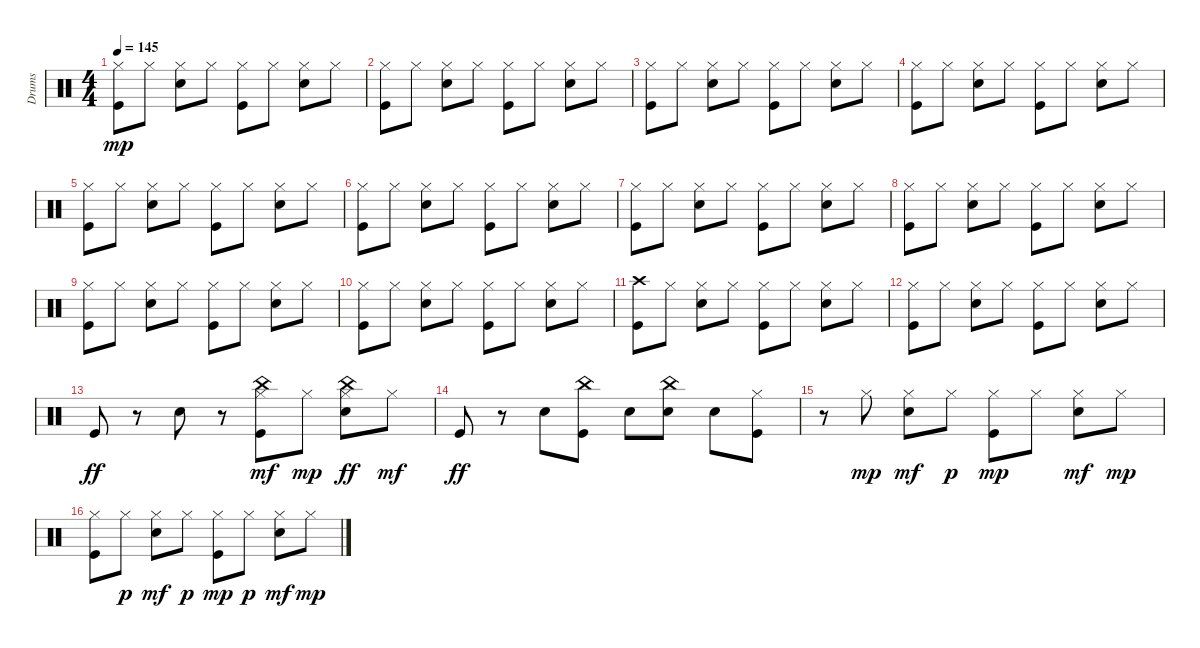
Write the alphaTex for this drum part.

\track ("Drums" "Drums") {instrument percussion}
\staff {score}
\articulation defaults
\ts (4 4)
\tempo 145
\clef neutral
\ks c
("Kick (hit)" "Hi-Hat (closed)").8{dy mp} "Hi-Hat (closed)".8 ("Snare (hit) 2" "Hi-Hat (closed)").8 "Hi-Hat (closed)".8 ("Kick (hit)" "Hi-Hat (closed)").8 "Hi-Hat (closed)".8 ("Snare (hit) 2" "Hi-Hat (closed)").8 "Hi-Hat (closed)".8 |
("Kick (hit)" "Hi-Hat (closed)").8 "Hi-Hat (closed)".8 ("Snare (hit) 2" "Hi-Hat (closed)").8 "Hi-Hat (closed)".8 ("Kick (hit)" "Hi-Hat (closed)").8 "Hi-Hat (closed)".8 ("Snare (hit) 2" "Hi-Hat (closed)").8 "Hi-Hat (closed)".8 |
("Kick (hit)" "Hi-Hat (closed)").8 "Hi-Hat (closed)".8 ("Snare (hit) 2" "Hi-Hat (closed)").8 "Hi-Hat (closed)".8 ("Kick (hit)" "Hi-Hat (closed)").8 "Hi-Hat (closed)".8 ("Snare (hit) 2" "Hi-Hat (closed)").8 "Hi-Hat (closed)".8 |
("Kick (hit)" "Hi-Hat (closed)").8 "Hi-Hat (closed)".8 ("Snare (hit) 2" "Hi-Hat (closed)").8 "Hi-Hat (closed)".8 ("Kick (hit)" "Hi-Hat (closed)").8 "Hi-Hat (closed)".8 ("Snare (hit) 2" "Hi-Hat (closed)").8 "Hi-Hat (closed)".8 |
("Kick (hit)" "Hi-Hat (closed)").8 "Hi-Hat (closed)".8 ("Snare (hit) 2" "Hi-Hat (closed)").8 "Hi-Hat (closed)".8 ("Kick (hit)" "Hi-Hat (closed)").8 "Hi-Hat (closed)".8 ("Snare (hit) 2" "Hi-Hat (closed)").8 "Hi-Hat (closed)".8 |
("Kick (hit)" "Hi-Hat (closed)").8 "Hi-Hat (closed)".8 ("Snare (hit) 2" "Hi-Hat (closed)").8 "Hi-Hat (closed)".8 ("Kick (hit)" "Hi-Hat (closed)").8 "Hi-Hat (closed)".8 ("Snare (hit) 2" "Hi-Hat (closed)").8 "Hi-Hat (closed)".8 |
("Kick (hit)" "Hi-Hat (closed)").8 "Hi-Hat (closed)".8 ("Snare (hit) 2" "Hi-Hat (closed)").8 "Hi-Hat (closed)".8 ("Kick (hit)" "Hi-Hat (closed)").8 "Hi-Hat (closed)".8 ("Snare (hit) 2" "Hi-Hat (closed)").8 "Hi-Hat (closed)".8 |
("Kick (hit)" "Hi-Hat (closed)").8 "Hi-Hat (closed)".8 ("Snare (hit) 2" "Hi-Hat (closed)").8 "Hi-Hat (closed)".8 ("Kick (hit)" "Hi-Hat (closed)").8 "Hi-Hat (closed)".8 ("Snare (hit) 2" "Hi-Hat (closed)").8 "Hi-Hat (closed)".8 |
("Kick (hit)" "Hi-Hat (closed)").8 "Hi-Hat (closed)".8 ("Snare (hit) 2" "Hi-Hat (closed)").8 "Hi-Hat (closed)".8 ("Kick (hit)" "Hi-Hat (closed)").8 "Hi-Hat (closed)".8 ("Snare (hit) 2" "Hi-Hat (closed)").8 "Hi-Hat (closed)".8 |
("Kick (hit)" "Hi-Hat (closed)").8 "Hi-Hat (closed)".8 ("Snare (hit) 2" "Hi-Hat (closed)").8 "Hi-Hat (closed)".8 ("Kick (hit)" "Hi-Hat (closed)").8 "Hi-Hat (closed)".8 ("Snare (hit) 2" "Hi-Hat (closed)").8 "Hi-Hat (closed)".8 |
("Kick (hit)" "Crash high (hit)").8 "Hi-Hat (closed)".8 ("Snare (hit) 2" "Hi-Hat (closed)").8 "Hi-Hat (closed)".8 ("Kick (hit)" "Hi-Hat (closed)").8 "Hi-Hat (closed)".8 ("Snare (hit) 2" "Hi-Hat (closed)").8 "Hi-Hat (closed)".8 |
("Kick (hit)" "Hi-Hat (closed)").8 "Hi-Hat (closed)".8 ("Snare (hit) 2" "Hi-Hat (closed)").8 "Hi-Hat (closed)".8 ("Kick (hit)" "Hi-Hat (closed)").8 "Hi-Hat (closed)".8 ("Snare (hit) 2" "Hi-Hat (closed)").8 "Hi-Hat (closed)".8 |
"Kick (hit)".8{dy ff} r.8 "Snare (hit) 2".8 r.8 ("Kick (hit)" "Hi-Hat (closed)" "China (hit)").8{dy mf} "Hi-Hat (closed)".8{dy mp} ("Snare (hit) 2" "Hi-Hat (closed)" "China (hit)").8{dy ff} "Hi-Hat (closed)".8{dy mf} |
"Kick (hit)".8{dy ff} r.8 "Snare (hit) 2".8 ("Kick (hit)" "China (hit)").8 "Snare (hit) 2".8 ("Snare (hit) 2" "China (hit)").8 "Snare (hit) 2".8 ("Kick (hit)" "Hi-Hat (closed)").8 |
r.8 "Hi-Hat (closed)".8{dy mp} ("Snare (hit) 2" "Hi-Hat (closed)").8{dy mf} "Hi-Hat (closed)".8{dy p} ("Kick (hit)" "Hi-Hat (closed)").8{dy mp} "Hi-Hat (closed)".8 ("Snare (hit) 2" "Hi-Hat (closed)").8{dy mf} "Hi-Hat (closed)".8{dy mp} |
("Kick (hit)" "Hi-Hat (closed)").8 "Hi-Hat (closed)".8{dy p} ("Snare (hit) 2" "Hi-Hat (closed)").8{dy mf} "Hi-Hat (closed)".8{dy p} ("Kick (hit)" "Hi-Hat (closed)").8{dy mp} "Hi-Hat (closed)".8{dy p} ("Snare (hit) 2" "Hi-Hat (closed)").8{dy mf} "Hi-Hat (closed)".8{dy mp}
